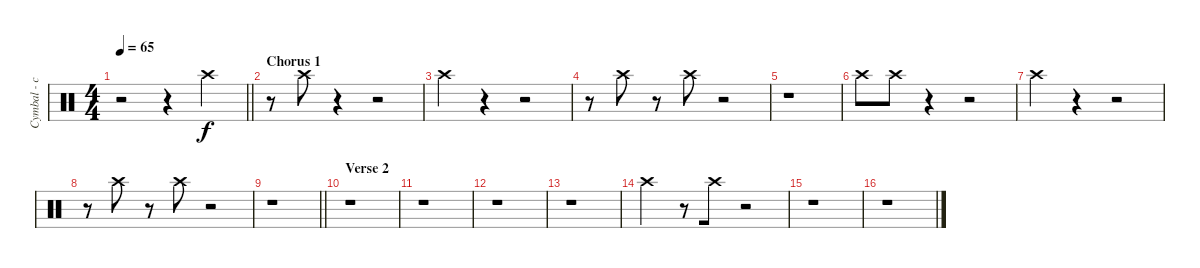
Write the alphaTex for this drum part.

\track ("Cymbal - crash - left" "Cymbal - c") {instrument percussion}
\staff {score}
\articulation defaults
\ts (4 4)
\tempo 65
\clef neutral
\barLineRight lightlight
\ks c
r.2{dy f} r.4 "Crash high (hit)".4 |
\section ("" "Chorus 1")
r.8 "Crash high (hit)".8 r.4 r.2 |
"Crash high (hit)".4 r.4 r.2 |
r.8 "Crash high (hit)".8 r.8 "Crash high (hit)".8 r.2 |
r.1 |
"Crash high (hit)".8 "Crash high (hit)".8 r.4 r.2 |
"Crash high (hit)".4 r.4 r.2 |
r.8 "Crash high (hit)".8 r.8 "Crash high (hit)".8 r.2 |
\barLineRight lightlight
r.1 |
\section ("" "Verse 2")
r.1 |
r.1 |
r.1 |
r.1 |
"Crash high (hit)".4{beam merge} r.8 "Crash high (hit)".8 r.2 |
r.1 |
r.1
